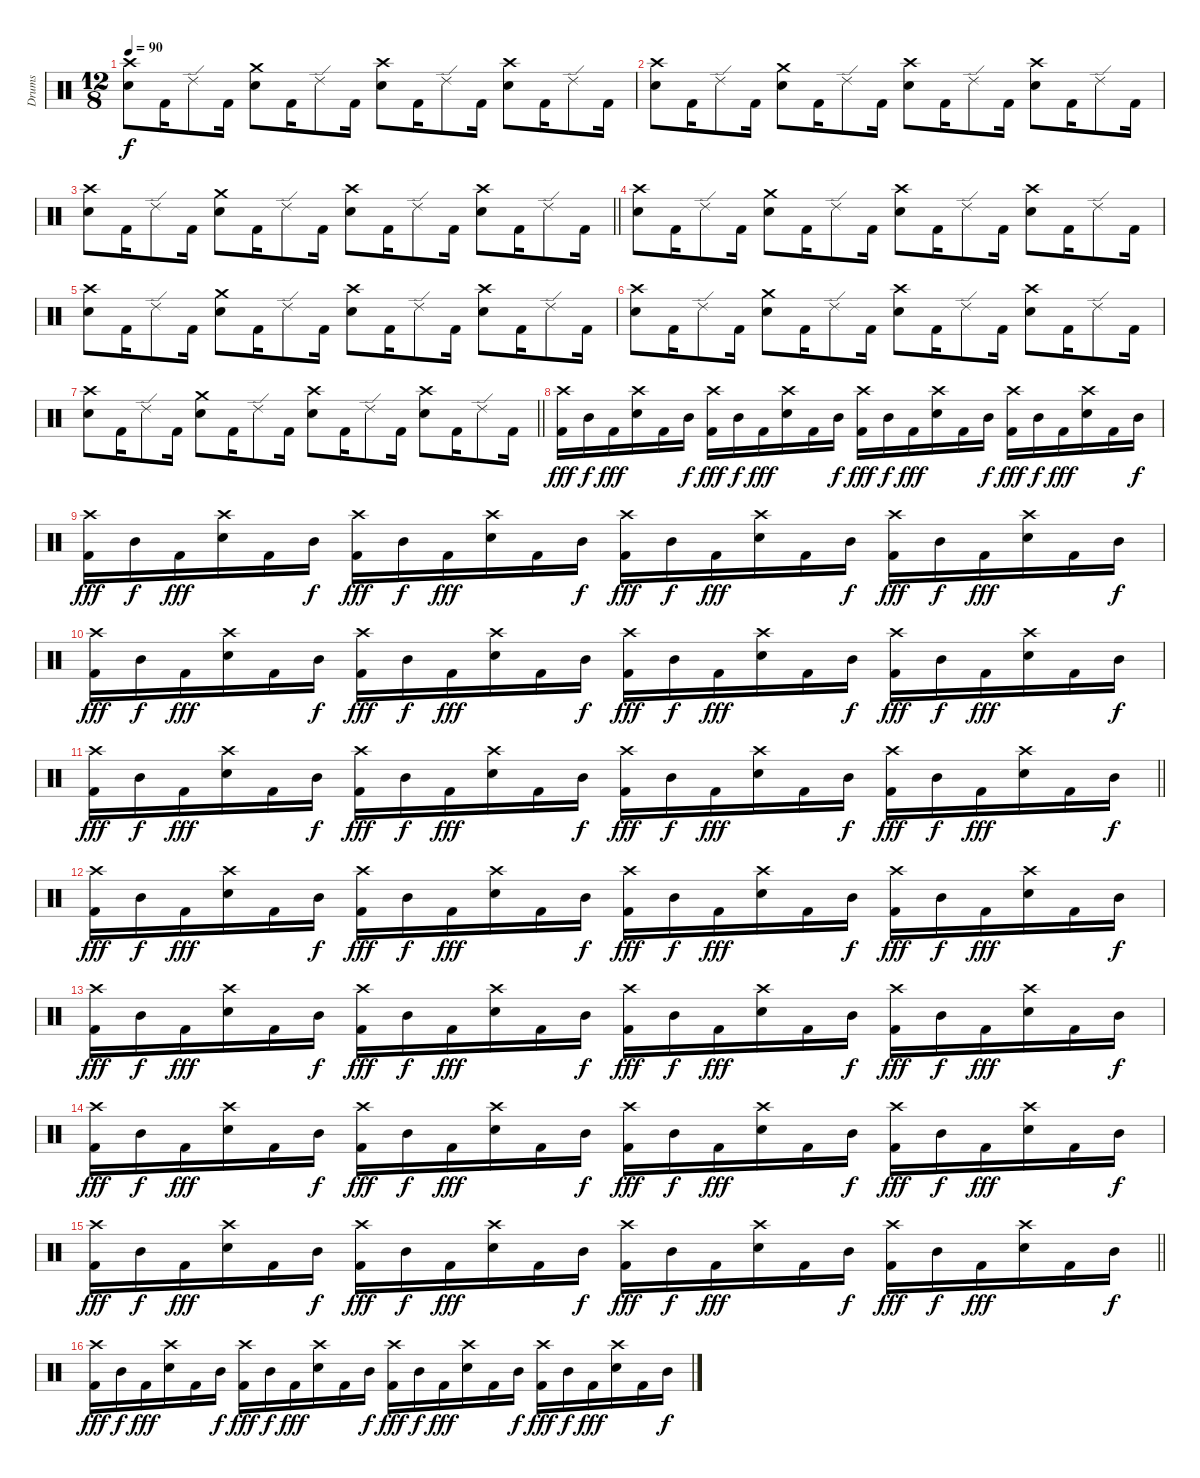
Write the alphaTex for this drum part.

\track ("Drums" "Drums") {instrument percussion}
\staff {score}
\articulation defaults
\ts (12 8)
\tempo 90
\clef neutral
\ks c
("Crash high (hit)" "Electric Snare (hit)").8{dy f} "Kick (hit) 2".16 "Ride (edge) 2".8 "Kick (hit) 2".16 ("Crash medium (hit)" "Electric Snare (hit)").8 "Kick (hit) 2".16 "Ride (edge) 2".8 "Kick (hit) 2".16 ("Crash high (hit)" "Electric Snare (hit)").8 "Kick (hit) 2".16 "Ride (edge) 2".8 "Kick (hit) 2".16 ("Crash high (hit)" "Electric Snare (hit)").8 "Kick (hit) 2".16 "Ride (edge) 2".8 "Kick (hit) 2".16 |
("Crash high (hit)" "Electric Snare (hit)").8 "Kick (hit) 2".16 "Ride (edge) 2".8 "Kick (hit) 2".16 ("Crash medium (hit)" "Electric Snare (hit)").8 "Kick (hit) 2".16 "Ride (edge) 2".8 "Kick (hit) 2".16 ("Crash high (hit)" "Electric Snare (hit)").8 "Kick (hit) 2".16 "Ride (edge) 2".8 "Kick (hit) 2".16 ("Crash high (hit)" "Electric Snare (hit)").8 "Kick (hit) 2".16 "Ride (edge) 2".8 "Kick (hit) 2".16 |
\barLineRight lightlight
("Crash high (hit)" "Electric Snare (hit)").8 "Kick (hit) 2".16 "Ride (edge) 2".8 "Kick (hit) 2".16 ("Crash medium (hit)" "Electric Snare (hit)").8 "Kick (hit) 2".16 "Ride (edge) 2".8 "Kick (hit) 2".16 ("Crash high (hit)" "Electric Snare (hit)").8 "Kick (hit) 2".16 "Ride (edge) 2".8 "Kick (hit) 2".16 ("Crash high (hit)" "Electric Snare (hit)").8 "Kick (hit) 2".16 "Ride (edge) 2".8 "Kick (hit) 2".16 |
\section ("" "")
("Crash high (hit)" "Electric Snare (hit)").8 "Kick (hit) 2".16 "Ride (edge) 2".8 "Kick (hit) 2".16 ("Crash medium (hit)" "Electric Snare (hit)").8 "Kick (hit) 2".16 "Ride (edge) 2".8 "Kick (hit) 2".16 ("Crash high (hit)" "Electric Snare (hit)").8 "Kick (hit) 2".16 "Ride (edge) 2".8 "Kick (hit) 2".16 ("Crash high (hit)" "Electric Snare (hit)").8 "Kick (hit) 2".16 "Ride (edge) 2".8 "Kick (hit) 2".16 |
("Crash high (hit)" "Electric Snare (hit)").8 "Kick (hit) 2".16 "Ride (edge) 2".8 "Kick (hit) 2".16 ("Crash medium (hit)" "Electric Snare (hit)").8 "Kick (hit) 2".16 "Ride (edge) 2".8 "Kick (hit) 2".16 ("Crash high (hit)" "Electric Snare (hit)").8 "Kick (hit) 2".16 "Ride (edge) 2".8 "Kick (hit) 2".16 ("Crash high (hit)" "Electric Snare (hit)").8 "Kick (hit) 2".16 "Ride (edge) 2".8 "Kick (hit) 2".16 |
("Crash high (hit)" "Electric Snare (hit)").8 "Kick (hit) 2".16 "Ride (edge) 2".8 "Kick (hit) 2".16 ("Crash medium (hit)" "Electric Snare (hit)").8 "Kick (hit) 2".16 "Ride (edge) 2".8 "Kick (hit) 2".16 ("Crash high (hit)" "Electric Snare (hit)").8 "Kick (hit) 2".16 "Ride (edge) 2".8 "Kick (hit) 2".16 ("Crash high (hit)" "Electric Snare (hit)").8 "Kick (hit) 2".16 "Ride (edge) 2".8 "Kick (hit) 2".16 |
\barLineRight lightlight
("Crash high (hit)" "Electric Snare (hit)").8 "Kick (hit) 2".16 "Ride (edge) 2".8 "Kick (hit) 2".16 ("Crash medium (hit)" "Electric Snare (hit)").8 "Kick (hit) 2".16 "Ride (edge) 2".8 "Kick (hit) 2".16 ("Crash high (hit)" "Electric Snare (hit)").8 "Kick (hit) 2".16 "Ride (edge) 2".8 "Kick (hit) 2".16 ("Crash high (hit)" "Electric Snare (hit)").8 "Kick (hit) 2".16 "Ride (edge) 2".8 "Kick (hit) 2".16 |
\section ("" "")
("Crash high (hit)" "Kick (hit) 2").16{dy fff} "Mid Tom (hit)".16{dy f} "Kick (hit) 2".16{dy fff} ("Crash high (hit)" "Electric Snare (hit)").16 "Kick (hit) 2".16 "Mid Tom (hit)".16{dy f} ("Crash high (hit)" "Kick (hit) 2").16{dy fff} "Mid Tom (hit)".16{dy f} "Kick (hit) 2".16{dy fff} ("Crash high (hit)" "Electric Snare (hit)").16 "Kick (hit) 2".16 "Mid Tom (hit)".16{dy f} ("Crash high (hit)" "Kick (hit) 2").16{dy fff} "Mid Tom (hit)".16{dy f} "Kick (hit) 2".16{dy fff} ("Crash high (hit)" "Electric Snare (hit)").16 "Kick (hit) 2".16 "Mid Tom (hit)".16{dy f} ("Crash high (hit)" "Kick (hit) 2").16{dy fff} "Mid Tom (hit)".16{dy f} "Kick (hit) 2".16{dy fff} ("Crash high (hit)" "Electric Snare (hit)").16 "Kick (hit) 2".16 "Mid Tom (hit)".16{dy f} |
("Crash high (hit)" "Kick (hit) 2").16{dy fff} "Mid Tom (hit)".16{dy f} "Kick (hit) 2".16{dy fff} ("Crash high (hit)" "Electric Snare (hit)").16 "Kick (hit) 2".16 "Mid Tom (hit)".16{dy f} ("Crash high (hit)" "Kick (hit) 2").16{dy fff} "Mid Tom (hit)".16{dy f} "Kick (hit) 2".16{dy fff} ("Crash high (hit)" "Electric Snare (hit)").16 "Kick (hit) 2".16 "Mid Tom (hit)".16{dy f} ("Crash high (hit)" "Kick (hit) 2").16{dy fff} "Mid Tom (hit)".16{dy f} "Kick (hit) 2".16{dy fff} ("Crash high (hit)" "Electric Snare (hit)").16 "Kick (hit) 2".16 "Mid Tom (hit)".16{dy f} ("Crash high (hit)" "Kick (hit) 2").16{dy fff} "Mid Tom (hit)".16{dy f} "Kick (hit) 2".16{dy fff} ("Crash high (hit)" "Electric Snare (hit)").16 "Kick (hit) 2".16 "Mid Tom (hit)".16{dy f} |
("Crash high (hit)" "Kick (hit) 2").16{dy fff} "Mid Tom (hit)".16{dy f} "Kick (hit) 2".16{dy fff} ("Crash high (hit)" "Electric Snare (hit)").16 "Kick (hit) 2".16 "Mid Tom (hit)".16{dy f} ("Crash high (hit)" "Kick (hit) 2").16{dy fff} "Mid Tom (hit)".16{dy f} "Kick (hit) 2".16{dy fff} ("Crash high (hit)" "Electric Snare (hit)").16 "Kick (hit) 2".16 "Mid Tom (hit)".16{dy f} ("Crash high (hit)" "Kick (hit) 2").16{dy fff} "Mid Tom (hit)".16{dy f} "Kick (hit) 2".16{dy fff} ("Crash high (hit)" "Electric Snare (hit)").16 "Kick (hit) 2".16 "Mid Tom (hit)".16{dy f} ("Crash high (hit)" "Kick (hit) 2").16{dy fff} "Mid Tom (hit)".16{dy f} "Kick (hit) 2".16{dy fff} ("Crash high (hit)" "Electric Snare (hit)").16 "Kick (hit) 2".16 "Mid Tom (hit)".16{dy f} |
\barLineRight lightlight
("Crash high (hit)" "Kick (hit) 2").16{dy fff} "Mid Tom (hit)".16{dy f} "Kick (hit) 2".16{dy fff} ("Crash high (hit)" "Electric Snare (hit)").16 "Kick (hit) 2".16 "Mid Tom (hit)".16{dy f} ("Crash high (hit)" "Kick (hit) 2").16{dy fff} "Mid Tom (hit)".16{dy f} "Kick (hit) 2".16{dy fff} ("Crash high (hit)" "Electric Snare (hit)").16 "Kick (hit) 2".16 "Mid Tom (hit)".16{dy f} ("Crash high (hit)" "Kick (hit) 2").16{dy fff} "Mid Tom (hit)".16{dy f} "Kick (hit) 2".16{dy fff} ("Crash high (hit)" "Electric Snare (hit)").16 "Kick (hit) 2".16 "Mid Tom (hit)".16{dy f} ("Crash high (hit)" "Kick (hit) 2").16{dy fff} "Mid Tom (hit)".16{dy f} "Kick (hit) 2".16{dy fff} ("Crash high (hit)" "Electric Snare (hit)").16 "Kick (hit) 2".16 "Mid Tom (hit)".16{dy f} |
\section ("" "")
("Crash high (hit)" "Kick (hit) 2").16{dy fff volume 8} "Mid Tom (hit)".16{dy f} "Kick (hit) 2".16{dy fff} ("Crash high (hit)" "Electric Snare (hit)").16 "Kick (hit) 2".16 "Mid Tom (hit)".16{dy f} ("Crash high (hit)" "Kick (hit) 2").16{dy fff} "Mid Tom (hit)".16{dy f} "Kick (hit) 2".16{dy fff} ("Crash high (hit)" "Electric Snare (hit)").16 "Kick (hit) 2".16 "Mid Tom (hit)".16{dy f} ("Crash high (hit)" "Kick (hit) 2").16{dy fff} "Mid Tom (hit)".16{dy f} "Kick (hit) 2".16{dy fff} ("Crash high (hit)" "Electric Snare (hit)").16 "Kick (hit) 2".16 "Mid Tom (hit)".16{dy f} ("Crash high (hit)" "Kick (hit) 2").16{dy fff} "Mid Tom (hit)".16{dy f} "Kick (hit) 2".16{dy fff} ("Crash high (hit)" "Electric Snare (hit)").16 "Kick (hit) 2".16 "Mid Tom (hit)".16{dy f} |
("Crash high (hit)" "Kick (hit) 2").16{dy fff} "Mid Tom (hit)".16{dy f} "Kick (hit) 2".16{dy fff} ("Crash high (hit)" "Electric Snare (hit)").16 "Kick (hit) 2".16 "Mid Tom (hit)".16{dy f} ("Crash high (hit)" "Kick (hit) 2").16{dy fff} "Mid Tom (hit)".16{dy f} "Kick (hit) 2".16{dy fff} ("Crash high (hit)" "Electric Snare (hit)").16 "Kick (hit) 2".16 "Mid Tom (hit)".16{dy f} ("Crash high (hit)" "Kick (hit) 2").16{dy fff} "Mid Tom (hit)".16{dy f} "Kick (hit) 2".16{dy fff} ("Crash high (hit)" "Electric Snare (hit)").16 "Kick (hit) 2".16 "Mid Tom (hit)".16{dy f} ("Crash high (hit)" "Kick (hit) 2").16{dy fff} "Mid Tom (hit)".16{dy f} "Kick (hit) 2".16{dy fff} ("Crash high (hit)" "Electric Snare (hit)").16 "Kick (hit) 2".16 "Mid Tom (hit)".16{dy f} |
("Crash high (hit)" "Kick (hit) 2").16{dy fff} "Mid Tom (hit)".16{dy f} "Kick (hit) 2".16{dy fff} ("Crash high (hit)" "Electric Snare (hit)").16 "Kick (hit) 2".16 "Mid Tom (hit)".16{dy f} ("Crash high (hit)" "Kick (hit) 2").16{dy fff} "Mid Tom (hit)".16{dy f} "Kick (hit) 2".16{dy fff} ("Crash high (hit)" "Electric Snare (hit)").16 "Kick (hit) 2".16 "Mid Tom (hit)".16{dy f} ("Crash high (hit)" "Kick (hit) 2").16{dy fff} "Mid Tom (hit)".16{dy f} "Kick (hit) 2".16{dy fff} ("Crash high (hit)" "Electric Snare (hit)").16 "Kick (hit) 2".16 "Mid Tom (hit)".16{dy f} ("Crash high (hit)" "Kick (hit) 2").16{dy fff volume 0} "Mid Tom (hit)".16{dy f} "Kick (hit) 2".16{dy fff} ("Crash high (hit)" "Electric Snare (hit)").16 "Kick (hit) 2".16 "Mid Tom (hit)".16{dy f} |
\barLineRight lightlight
("Crash high (hit)" "Kick (hit) 2").16{dy fff} "Mid Tom (hit)".16{dy f} "Kick (hit) 2".16{dy fff} ("Crash high (hit)" "Electric Snare (hit)").16 "Kick (hit) 2".16 "Mid Tom (hit)".16{dy f} ("Crash high (hit)" "Kick (hit) 2").16{dy fff} "Mid Tom (hit)".16{dy f} "Kick (hit) 2".16{dy fff} ("Crash high (hit)" "Electric Snare (hit)").16 "Kick (hit) 2".16 "Mid Tom (hit)".16{dy f} ("Crash high (hit)" "Kick (hit) 2").16{dy fff} "Mid Tom (hit)".16{dy f} "Kick (hit) 2".16{dy fff} ("Crash high (hit)" "Electric Snare (hit)").16 "Kick (hit) 2".16 "Mid Tom (hit)".16{dy f} ("Crash high (hit)" "Kick (hit) 2").16{dy fff} "Mid Tom (hit)".16{dy f} "Kick (hit) 2".16{dy fff} ("Crash high (hit)" "Electric Snare (hit)").16 "Kick (hit) 2".16 "Mid Tom (hit)".16{dy f} |
\section ("" "")
("Crash high (hit)" "Kick (hit) 2").16{dy fff} "Mid Tom (hit)".16{dy f} "Kick (hit) 2".16{dy fff} ("Crash high (hit)" "Electric Snare (hit)").16 "Kick (hit) 2".16 "Mid Tom (hit)".16{dy f} ("Crash high (hit)" "Kick (hit) 2").16{dy fff} "Mid Tom (hit)".16{dy f} "Kick (hit) 2".16{dy fff} ("Crash high (hit)" "Electric Snare (hit)").16 "Kick (hit) 2".16 "Mid Tom (hit)".16{dy f} ("Crash high (hit)" "Kick (hit) 2").16{dy fff} "Mid Tom (hit)".16{dy f} "Kick (hit) 2".16{dy fff} ("Crash high (hit)" "Electric Snare (hit)").16 "Kick (hit) 2".16 "Mid Tom (hit)".16{dy f} ("Crash high (hit)" "Kick (hit) 2").16{dy fff} "Mid Tom (hit)".16{dy f} "Kick (hit) 2".16{dy fff} ("Crash high (hit)" "Electric Snare (hit)").16 "Kick (hit) 2".16 "Mid Tom (hit)".16{dy f}
